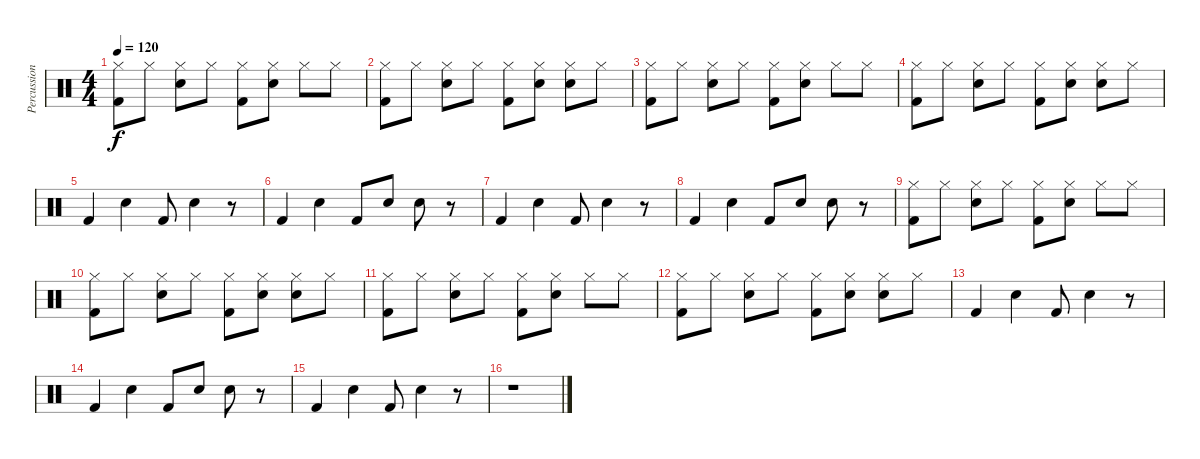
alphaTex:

\track ("Percussion" "Percussion") {instrument percussion}
\staff {score}
\articulation defaults
\ts (4 4)
\tempo 120
\clef neutral
\ks c
("Hi-Hat (closed)" "Kick (hit) 2").8{dy f} "Hi-Hat (closed)".8 ("Hi-Hat (closed)" "Snare (hit) 2").8 "Hi-Hat (closed)".8 ("Hi-Hat (closed)" "Kick (hit) 2").8 ("Hi-Hat (closed)" "Snare (hit) 2").8 "Hi-Hat (closed)".8 "Hi-Hat (closed)".8 |
("Hi-Hat (closed)" "Kick (hit) 2").8 "Hi-Hat (closed)".8 ("Hi-Hat (closed)" "Snare (hit) 2").8 "Hi-Hat (closed)".8 ("Hi-Hat (closed)" "Kick (hit) 2").8 ("Hi-Hat (closed)" "Snare (hit) 2").8 ("Hi-Hat (closed)" "Snare (hit) 2").8 "Hi-Hat (closed)".8 |
("Hi-Hat (closed)" "Kick (hit) 2").8 "Hi-Hat (closed)".8 ("Hi-Hat (closed)" "Snare (hit) 2").8 "Hi-Hat (closed)".8 ("Hi-Hat (closed)" "Kick (hit) 2").8 ("Hi-Hat (closed)" "Snare (hit) 2").8 "Hi-Hat (closed)".8 "Hi-Hat (closed)".8 |
("Hi-Hat (closed)" "Kick (hit) 2").8 "Hi-Hat (closed)".8 ("Hi-Hat (closed)" "Snare (hit) 2").8 "Hi-Hat (closed)".8 ("Hi-Hat (closed)" "Kick (hit) 2").8 ("Hi-Hat (closed)" "Snare (hit) 2").8 ("Hi-Hat (closed)" "Snare (hit) 2").8 "Hi-Hat (closed)".8 |
"Kick (hit) 2".4 "Snare (hit) 2".4 "Kick (hit) 2".8 "Snare (hit) 2".4 r.8 |
"Kick (hit) 2".4 "Snare (hit) 2".4 "Kick (hit) 2".8 "Snare (hit) 2".8 "Snare (hit) 2".8 r.8 |
"Kick (hit) 2".4 "Snare (hit) 2".4 "Kick (hit) 2".8 "Snare (hit) 2".4 r.8 |
"Kick (hit) 2".4 "Snare (hit) 2".4 "Kick (hit) 2".8 "Snare (hit) 2".8 "Snare (hit) 2".8 r.8 |
("Hi-Hat (closed)" "Kick (hit) 2").8 "Hi-Hat (closed)".8 ("Hi-Hat (closed)" "Snare (hit) 2").8 "Hi-Hat (closed)".8 ("Hi-Hat (closed)" "Kick (hit) 2").8 ("Hi-Hat (closed)" "Snare (hit) 2").8 "Hi-Hat (closed)".8 "Hi-Hat (closed)".8 |
("Hi-Hat (closed)" "Kick (hit) 2").8 "Hi-Hat (closed)".8 ("Hi-Hat (closed)" "Snare (hit) 2").8 "Hi-Hat (closed)".8 ("Hi-Hat (closed)" "Kick (hit) 2").8 ("Hi-Hat (closed)" "Snare (hit) 2").8 ("Hi-Hat (closed)" "Snare (hit) 2").8 "Hi-Hat (closed)".8 |
("Hi-Hat (closed)" "Kick (hit) 2").8 "Hi-Hat (closed)".8 ("Hi-Hat (closed)" "Snare (hit) 2").8 "Hi-Hat (closed)".8 ("Hi-Hat (closed)" "Kick (hit) 2").8 ("Hi-Hat (closed)" "Snare (hit) 2").8 "Hi-Hat (closed)".8 "Hi-Hat (closed)".8 |
("Hi-Hat (closed)" "Kick (hit) 2").8 "Hi-Hat (closed)".8 ("Hi-Hat (closed)" "Snare (hit) 2").8 "Hi-Hat (closed)".8 ("Hi-Hat (closed)" "Kick (hit) 2").8 ("Hi-Hat (closed)" "Snare (hit) 2").8 ("Hi-Hat (closed)" "Snare (hit) 2").8 "Hi-Hat (closed)".8 |
"Kick (hit) 2".4 "Snare (hit) 2".4 "Kick (hit) 2".8 "Snare (hit) 2".4 r.8 |
"Kick (hit) 2".4 "Snare (hit) 2".4 "Kick (hit) 2".8 "Snare (hit) 2".8 "Snare (hit) 2".8 r.8 |
"Kick (hit) 2".4 "Snare (hit) 2".4 "Kick (hit) 2".8 "Snare (hit) 2".4 r.8 |
r.1
